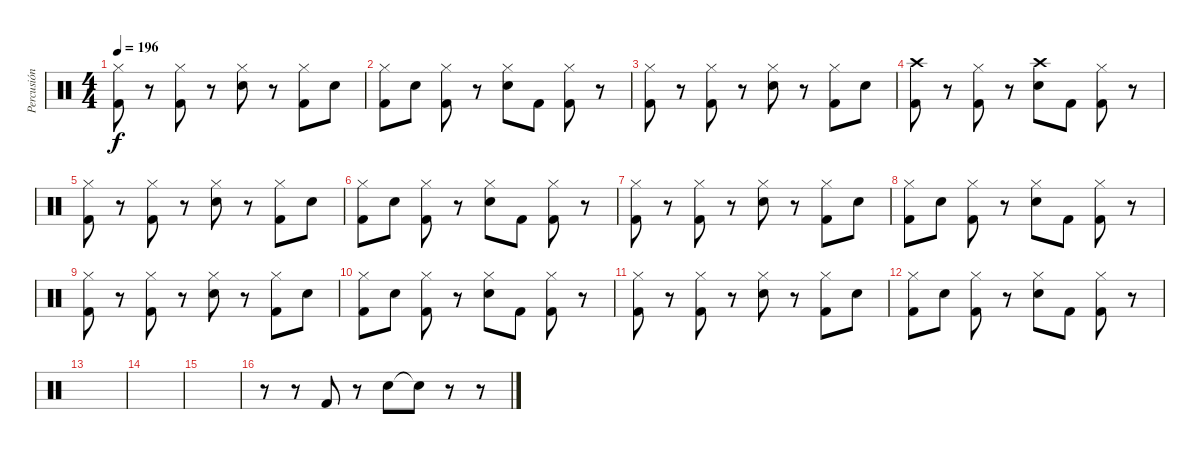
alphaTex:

\track ("Percusión" "Percusión") {instrument percussion}
\staff {score}
\articulation defaults
\ts (4 4)
\tempo 196
\clef neutral
\ks c
("Hi-Hat (closed)" "Kick (hit) 2").8{dy f} r.8 ("Hi-Hat (closed)" "Kick (hit) 2").8 r.8 ("Hi-Hat (closed)" "Snare (hit) 2").8 r.8 ("Hi-Hat (closed)" "Kick (hit) 2").8 "Snare (hit) 2".8 |
("Hi-Hat (closed)" "Kick (hit) 2").8 "Snare (hit) 2".8 ("Hi-Hat (closed)" "Kick (hit) 2").8 r.8 ("Hi-Hat (closed)" "Snare (hit) 2").8 "Kick (hit) 2".8 ("Hi-Hat (closed)" "Kick (hit) 2").8 r.8 |
("Hi-Hat (closed)" "Kick (hit) 2").8 r.8 ("Hi-Hat (closed)" "Kick (hit) 2").8 r.8 ("Hi-Hat (closed)" "Snare (hit) 2").8 r.8 ("Hi-Hat (closed)" "Kick (hit) 2").8 "Snare (hit) 2".8 |
("Crash high (hit)" "Kick (hit) 2").8 r.8 ("Hi-Hat (closed)" "Kick (hit) 2").8 r.8 ("Crash high (hit)" "Snare (hit) 2").8 "Kick (hit) 2".8 ("Hi-Hat (closed)" "Kick (hit) 2").8 r.8 |
("Hi-Hat (closed)" "Kick (hit) 2").8 r.8 ("Hi-Hat (closed)" "Kick (hit) 2").8 r.8 ("Hi-Hat (closed)" "Snare (hit) 2").8 r.8 ("Hi-Hat (closed)" "Kick (hit) 2").8 "Snare (hit) 2".8 |
("Hi-Hat (closed)" "Kick (hit) 2").8 "Snare (hit) 2".8 ("Hi-Hat (closed)" "Kick (hit) 2").8 r.8 ("Hi-Hat (closed)" "Snare (hit) 2").8 "Kick (hit) 2".8 ("Hi-Hat (closed)" "Kick (hit) 2").8 r.8 |
("Hi-Hat (closed)" "Kick (hit) 2").8 r.8 ("Hi-Hat (closed)" "Kick (hit) 2").8 r.8 ("Hi-Hat (closed)" "Snare (hit) 2").8 r.8 ("Hi-Hat (closed)" "Kick (hit) 2").8 "Snare (hit) 2".8 |
("Hi-Hat (closed)" "Kick (hit) 2").8 "Snare (hit) 2".8 ("Hi-Hat (closed)" "Kick (hit) 2").8 r.8 ("Hi-Hat (closed)" "Snare (hit) 2").8 "Kick (hit) 2".8 ("Hi-Hat (closed)" "Kick (hit) 2").8 r.8 |
("Hi-Hat (closed)" "Kick (hit) 2").8 r.8 ("Hi-Hat (closed)" "Kick (hit) 2").8 r.8 ("Hi-Hat (closed)" "Snare (hit) 2").8 r.8 ("Hi-Hat (closed)" "Kick (hit) 2").8 "Snare (hit) 2".8 |
("Hi-Hat (closed)" "Kick (hit) 2").8 "Snare (hit) 2".8 ("Hi-Hat (closed)" "Kick (hit) 2").8 r.8 ("Hi-Hat (closed)" "Snare (hit) 2").8 "Kick (hit) 2".8 ("Hi-Hat (closed)" "Kick (hit) 2").8 r.8 |
("Hi-Hat (closed)" "Kick (hit) 2").8 r.8 ("Hi-Hat (closed)" "Kick (hit) 2").8 r.8 ("Hi-Hat (closed)" "Snare (hit) 2").8 r.8 ("Hi-Hat (closed)" "Kick (hit) 2").8 "Snare (hit) 2".8 |
("Hi-Hat (closed)" "Kick (hit) 2").8 "Snare (hit) 2".8 ("Hi-Hat (closed)" "Kick (hit) 2").8 r.8 ("Hi-Hat (closed)" "Snare (hit) 2").8 "Kick (hit) 2".8 ("Hi-Hat (closed)" "Kick (hit) 2").8 r.8 |
|
|
|
r.8 r.8 "Kick (hit) 2".8 r.8 "Snare (hit) 2".8 "Snare (hit) 2"{t}.8 r.8 r.8
